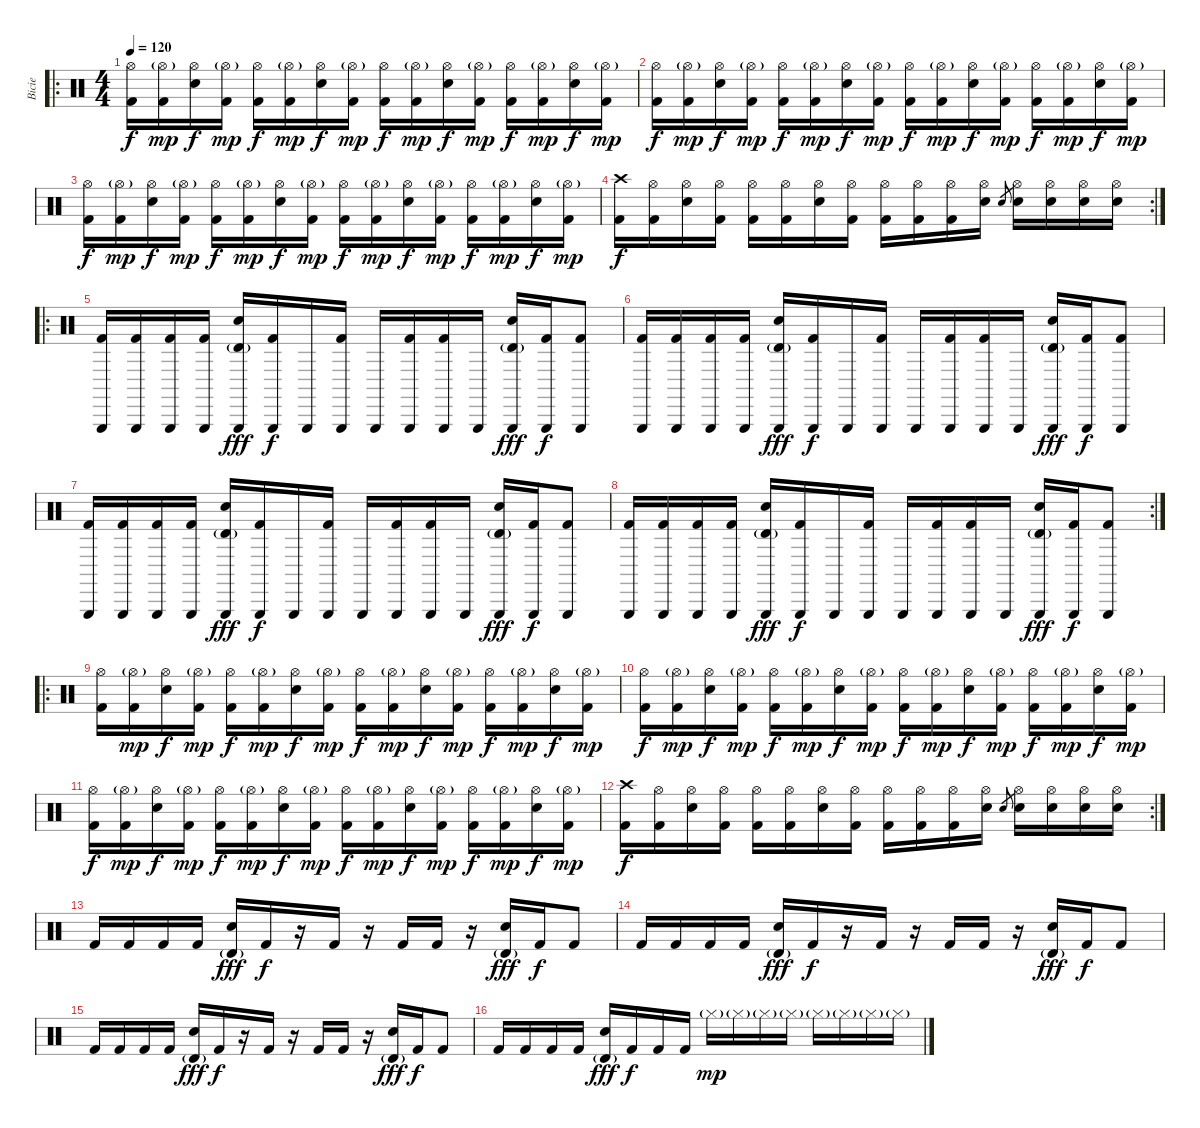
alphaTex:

\track ("Bicie" "Bicie") {instrument percussion}
\staff {score}
\articulation defaults
\ro
\ts (4 4)
\tempo 120
\clef neutral
\ks c
("Hi-Hat (open)" "Kick (hit) 2").16{dy f} ("Hi-Hat (open)"{g} "Kick (hit) 2").16{dy mp} ("Hi-Hat (open)" "Electric Snare (hit)").16{dy f} ("Hi-Hat (open)"{g} "Kick (hit) 2").16{dy mp} ("Hi-Hat (open)" "Kick (hit) 2").16{dy f} ("Hi-Hat (open)"{g} "Kick (hit) 2").16{dy mp} ("Hi-Hat (open)" "Electric Snare (hit)").16{dy f} ("Hi-Hat (open)"{g} "Kick (hit) 2").16{dy mp} ("Hi-Hat (open)" "Kick (hit) 2").16{dy f} ("Hi-Hat (open)"{g} "Kick (hit) 2").16{dy mp} ("Hi-Hat (open)" "Electric Snare (hit)").16{dy f} ("Hi-Hat (open)"{g} "Kick (hit) 2").16{dy mp} ("Hi-Hat (open)" "Kick (hit) 2").16{dy f} ("Hi-Hat (open)"{g} "Kick (hit) 2").16{dy mp} ("Hi-Hat (open)" "Electric Snare (hit)").16{dy f} ("Hi-Hat (open)"{g} "Kick (hit) 2").16{dy mp} |
("Hi-Hat (open)" "Kick (hit) 2").16{dy f} ("Hi-Hat (open)"{g} "Kick (hit) 2").16{dy mp} ("Hi-Hat (open)" "Electric Snare (hit)").16{dy f} ("Hi-Hat (open)"{g} "Kick (hit) 2").16{dy mp} ("Hi-Hat (open)" "Kick (hit) 2").16{dy f} ("Hi-Hat (open)"{g} "Kick (hit) 2").16{dy mp} ("Hi-Hat (open)" "Electric Snare (hit)").16{dy f} ("Hi-Hat (open)"{g} "Kick (hit) 2").16{dy mp} ("Hi-Hat (open)" "Kick (hit) 2").16{dy f} ("Hi-Hat (open)"{g} "Kick (hit) 2").16{dy mp} ("Hi-Hat (open)" "Electric Snare (hit)").16{dy f} ("Hi-Hat (open)"{g} "Kick (hit) 2").16{dy mp} ("Hi-Hat (open)" "Kick (hit) 2").16{dy f} ("Hi-Hat (open)"{g} "Kick (hit) 2").16{dy mp} ("Hi-Hat (open)" "Electric Snare (hit)").16{dy f} ("Hi-Hat (open)"{g} "Kick (hit) 2").16{dy mp} |
("Hi-Hat (open)" "Kick (hit) 2").16{dy f} ("Hi-Hat (open)"{g} "Kick (hit) 2").16{dy mp} ("Hi-Hat (open)" "Electric Snare (hit)").16{dy f} ("Hi-Hat (open)"{g} "Kick (hit) 2").16{dy mp} ("Hi-Hat (open)" "Kick (hit) 2").16{dy f} ("Hi-Hat (open)"{g} "Kick (hit) 2").16{dy mp} ("Hi-Hat (open)" "Electric Snare (hit)").16{dy f} ("Hi-Hat (open)"{g} "Kick (hit) 2").16{dy mp} ("Hi-Hat (open)" "Kick (hit) 2").16{dy f} ("Hi-Hat (open)"{g} "Kick (hit) 2").16{dy mp} ("Hi-Hat (open)" "Electric Snare (hit)").16{dy f} ("Hi-Hat (open)"{g} "Kick (hit) 2").16{dy mp} ("Hi-Hat (open)" "Kick (hit) 2").16{dy f} ("Hi-Hat (open)"{g} "Kick (hit) 2").16{dy mp} ("Hi-Hat (open)" "Electric Snare (hit)").16{dy f} ("Hi-Hat (open)"{g} "Kick (hit) 2").16{dy mp} |
\rc 2
("Crash high (hit)" "Kick (hit) 2").16{dy f} ("Hi-Hat (open)" "Kick (hit) 2").16 ("Hi-Hat (open)" "Electric Snare (hit)").16 ("Hi-Hat (open)" "Kick (hit) 2").16 ("Hi-Hat (open)" "Kick (hit) 2").16 ("Hi-Hat (open)" "Kick (hit) 2").16 ("Hi-Hat (open)" "Electric Snare (hit)").16 ("Hi-Hat (open)" "Kick (hit) 2").16 ("Hi-Hat (open)" "Kick (hit) 2").16 ("Hi-Hat (open)" "Kick (hit) 2").16 ("Hi-Hat (open)" "Kick (hit) 2").16 ("Hi-Hat (open)" "Electric Snare (hit)").16 "Electric Snare (hit)".8{gr} ("Hi-Hat (open)" "Electric Snare (hit)").16 ("Hi-Hat (open)" "Electric Snare (hit)").16 ("Hi-Hat (open)" "Electric Snare (hit)").16 ("Hi-Hat (open)" "Electric Snare (hit)").16 |
\ro
("Triangle (hit)" "Kick (hit) 2").16 ("Triangle (hit)" "Kick (hit) 2").16 ("Triangle (hit)" "Kick (hit) 2").16 ("Triangle (hit)" "Kick (hit) 2").16 ("Triangle (hit)" "Timbale high (hit)"{g} "Snare (hit) 2").16{dy fff} ("Triangle (hit)" "Kick (hit) 2").16{dy f} "Triangle (hit)".16 ("Triangle (hit)" "Kick (hit) 2").16 "Triangle (hit)".16 ("Triangle (hit)" "Kick (hit) 2").16 ("Triangle (hit)" "Kick (hit) 2").16 "Triangle (hit)".16 ("Triangle (hit)" "Timbale high (hit)"{g} "Snare (hit) 2").16{dy fff} ("Triangle (hit)" "Kick (hit) 2").16{dy f} ("Triangle (hit)" "Kick (hit) 2").8 |
("Triangle (hit)" "Kick (hit) 2").16 ("Triangle (hit)" "Kick (hit) 2").16 ("Triangle (hit)" "Kick (hit) 2").16 ("Triangle (hit)" "Kick (hit) 2").16 ("Triangle (hit)" "Timbale high (hit)"{g} "Snare (hit) 2").16{dy fff} ("Triangle (hit)" "Kick (hit) 2").16{dy f} "Triangle (hit)".16 ("Triangle (hit)" "Kick (hit) 2").16 "Triangle (hit)".16 ("Triangle (hit)" "Kick (hit) 2").16 ("Triangle (hit)" "Kick (hit) 2").16 "Triangle (hit)".16 ("Triangle (hit)" "Timbale high (hit)"{g} "Snare (hit) 2").16{dy fff} ("Triangle (hit)" "Kick (hit) 2").16{dy f} ("Triangle (hit)" "Kick (hit) 2").8 |
("Triangle (hit)" "Kick (hit) 2").16 ("Triangle (hit)" "Kick (hit) 2").16 ("Triangle (hit)" "Kick (hit) 2").16 ("Triangle (hit)" "Kick (hit) 2").16 ("Triangle (hit)" "Timbale high (hit)"{g} "Snare (hit) 2").16{dy fff} ("Triangle (hit)" "Kick (hit) 2").16{dy f} "Triangle (hit)".16 ("Triangle (hit)" "Kick (hit) 2").16 "Triangle (hit)".16 ("Triangle (hit)" "Kick (hit) 2").16 ("Triangle (hit)" "Kick (hit) 2").16 "Triangle (hit)".16 ("Triangle (hit)" "Timbale high (hit)"{g} "Snare (hit) 2").16{dy fff} ("Triangle (hit)" "Kick (hit) 2").16{dy f} ("Triangle (hit)" "Kick (hit) 2").8 |
\rc 2
("Triangle (hit)" "Kick (hit) 2").16 ("Triangle (hit)" "Kick (hit) 2").16 ("Triangle (hit)" "Kick (hit) 2").16 ("Triangle (hit)" "Kick (hit) 2").16 ("Triangle (hit)" "Timbale high (hit)"{g} "Snare (hit) 2").16{dy fff} ("Triangle (hit)" "Kick (hit) 2").16{dy f} "Triangle (hit)".16 ("Triangle (hit)" "Kick (hit) 2").16 "Triangle (hit)".16 ("Triangle (hit)" "Kick (hit) 2").16 ("Triangle (hit)" "Kick (hit) 2").16 "Triangle (hit)".16 ("Triangle (hit)" "Timbale high (hit)"{g} "Snare (hit) 2").16{dy fff} ("Triangle (hit)" "Kick (hit) 2").16{dy f} ("Triangle (hit)" "Kick (hit) 2").8 |
\ro
("Hi-Hat (open)" "Kick (hit) 2").16 ("Hi-Hat (open)"{g} "Kick (hit) 2").16{dy mp} ("Hi-Hat (open)" "Electric Snare (hit)").16{dy f} ("Hi-Hat (open)"{g} "Kick (hit) 2").16{dy mp} ("Hi-Hat (open)" "Kick (hit) 2").16{dy f} ("Hi-Hat (open)"{g} "Kick (hit) 2").16{dy mp} ("Hi-Hat (open)" "Electric Snare (hit)").16{dy f} ("Hi-Hat (open)"{g} "Kick (hit) 2").16{dy mp} ("Hi-Hat (open)" "Kick (hit) 2").16{dy f} ("Hi-Hat (open)"{g} "Kick (hit) 2").16{dy mp} ("Hi-Hat (open)" "Electric Snare (hit)").16{dy f} ("Hi-Hat (open)"{g} "Kick (hit) 2").16{dy mp} ("Hi-Hat (open)" "Kick (hit) 2").16{dy f} ("Hi-Hat (open)"{g} "Kick (hit) 2").16{dy mp} ("Hi-Hat (open)" "Electric Snare (hit)").16{dy f} ("Hi-Hat (open)"{g} "Kick (hit) 2").16{dy mp} |
("Hi-Hat (open)" "Kick (hit) 2").16{dy f} ("Hi-Hat (open)"{g} "Kick (hit) 2").16{dy mp} ("Hi-Hat (open)" "Electric Snare (hit)").16{dy f} ("Hi-Hat (open)"{g} "Kick (hit) 2").16{dy mp} ("Hi-Hat (open)" "Kick (hit) 2").16{dy f} ("Hi-Hat (open)"{g} "Kick (hit) 2").16{dy mp} ("Hi-Hat (open)" "Electric Snare (hit)").16{dy f} ("Hi-Hat (open)"{g} "Kick (hit) 2").16{dy mp} ("Hi-Hat (open)" "Kick (hit) 2").16{dy f} ("Hi-Hat (open)"{g} "Kick (hit) 2").16{dy mp} ("Hi-Hat (open)" "Electric Snare (hit)").16{dy f} ("Hi-Hat (open)"{g} "Kick (hit) 2").16{dy mp} ("Hi-Hat (open)" "Kick (hit) 2").16{dy f} ("Hi-Hat (open)"{g} "Kick (hit) 2").16{dy mp} ("Hi-Hat (open)" "Electric Snare (hit)").16{dy f} ("Hi-Hat (open)"{g} "Kick (hit) 2").16{dy mp} |
("Hi-Hat (open)" "Kick (hit) 2").16{dy f} ("Hi-Hat (open)"{g} "Kick (hit) 2").16{dy mp} ("Hi-Hat (open)" "Electric Snare (hit)").16{dy f} ("Hi-Hat (open)"{g} "Kick (hit) 2").16{dy mp} ("Hi-Hat (open)" "Kick (hit) 2").16{dy f} ("Hi-Hat (open)"{g} "Kick (hit) 2").16{dy mp} ("Hi-Hat (open)" "Electric Snare (hit)").16{dy f} ("Hi-Hat (open)"{g} "Kick (hit) 2").16{dy mp} ("Hi-Hat (open)" "Kick (hit) 2").16{dy f} ("Hi-Hat (open)"{g} "Kick (hit) 2").16{dy mp} ("Hi-Hat (open)" "Electric Snare (hit)").16{dy f} ("Hi-Hat (open)"{g} "Kick (hit) 2").16{dy mp} ("Hi-Hat (open)" "Kick (hit) 2").16{dy f} ("Hi-Hat (open)"{g} "Kick (hit) 2").16{dy mp} ("Hi-Hat (open)" "Electric Snare (hit)").16{dy f} ("Hi-Hat (open)"{g} "Kick (hit) 2").16{dy mp} |
\rc 2
("Crash high (hit)" "Kick (hit) 2").16{dy f} ("Hi-Hat (open)" "Kick (hit) 2").16 ("Hi-Hat (open)" "Electric Snare (hit)").16 ("Hi-Hat (open)" "Kick (hit) 2").16 ("Hi-Hat (open)" "Kick (hit) 2").16 ("Hi-Hat (open)" "Kick (hit) 2").16 ("Hi-Hat (open)" "Electric Snare (hit)").16 ("Hi-Hat (open)" "Kick (hit) 2").16 ("Hi-Hat (open)" "Kick (hit) 2").16 ("Hi-Hat (open)" "Kick (hit) 2").16 ("Hi-Hat (open)" "Kick (hit) 2").16 ("Hi-Hat (open)" "Electric Snare (hit)").16 "Electric Snare (hit)".8{gr} ("Hi-Hat (open)" "Electric Snare (hit)").16 ("Hi-Hat (open)" "Electric Snare (hit)").16 ("Hi-Hat (open)" "Electric Snare (hit)").16 ("Hi-Hat (open)" "Electric Snare (hit)").16 |
"Kick (hit) 2".16 "Kick (hit) 2".16 "Kick (hit) 2".16 "Kick (hit) 2".16 ("Timbale high (hit)"{g} "Snare (hit) 2").16{dy fff} "Kick (hit) 2".16{dy f} r.16 "Kick (hit) 2".16 r.16 "Kick (hit) 2".16 "Kick (hit) 2".16 r.16 ("Timbale high (hit)"{g} "Snare (hit) 2").16{dy fff} "Kick (hit) 2".16{dy f} "Kick (hit) 2".8 |
"Kick (hit) 2".16 "Kick (hit) 2".16 "Kick (hit) 2".16 "Kick (hit) 2".16 ("Timbale high (hit)"{g} "Snare (hit) 2").16{dy fff} "Kick (hit) 2".16{dy f} r.16 "Kick (hit) 2".16 r.16 "Kick (hit) 2".16 "Kick (hit) 2".16 r.16 ("Timbale high (hit)"{g} "Snare (hit) 2").16{dy fff} "Kick (hit) 2".16{dy f} "Kick (hit) 2".8 |
"Kick (hit) 2".16 "Kick (hit) 2".16 "Kick (hit) 2".16 "Kick (hit) 2".16 ("Timbale high (hit)"{g} "Snare (hit) 2").16{dy fff} "Kick (hit) 2".16{dy f} r.16 "Kick (hit) 2".16 r.16 "Kick (hit) 2".16 "Kick (hit) 2".16 r.16 ("Timbale high (hit)"{g} "Snare (hit) 2").16{dy fff} "Kick (hit) 2".16{dy f} "Kick (hit) 2".8 |
"Kick (hit) 2".16 "Kick (hit) 2".16 "Kick (hit) 2".16 "Kick (hit) 2".16 ("Timbale high (hit)"{g} "Snare (hit) 2").16{dy fff} "Kick (hit) 2".16{dy f} "Kick (hit) 2".16 "Kick (hit) 2".16 "Hi-Hat (closed)"{g}.16{dy mp} "Hi-Hat (closed)"{g}.16 "Hi-Hat (closed)"{g}.16 "Hi-Hat (closed)"{g}.16 "Hi-Hat (closed)"{g}.16 "Hi-Hat (closed)"{g}.16 "Hi-Hat (closed)"{g}.16 "Hi-Hat (closed)"{g}.16
